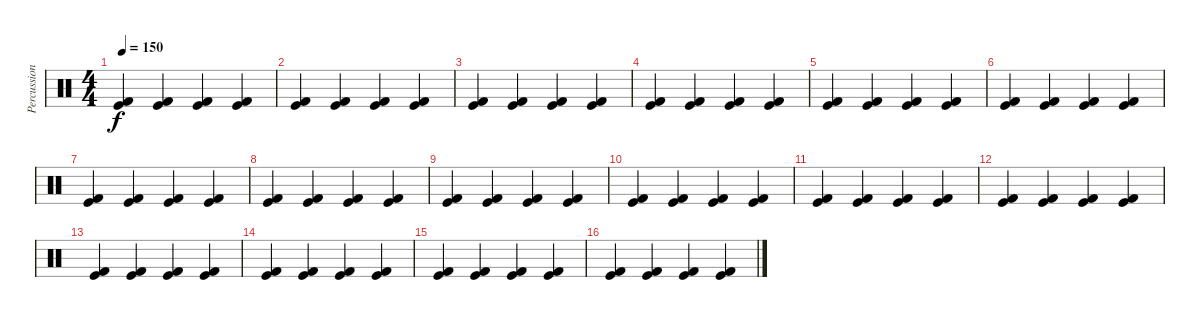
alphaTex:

\track ("Percussion" "Percussion") {instrument percussion}
\staff {score}
\articulation defaults
\ts (4 4)
\tempo 150
\clef neutral
\ks c
("Kick (hit) 2" "Kick (hit)").4{dy f} ("Kick (hit) 2" "Kick (hit)").4 ("Kick (hit) 2" "Kick (hit)").4 ("Kick (hit) 2" "Kick (hit)").4 |
("Kick (hit) 2" "Kick (hit)").4 ("Kick (hit) 2" "Kick (hit)").4 ("Kick (hit) 2" "Kick (hit)").4 ("Kick (hit) 2" "Kick (hit)").4 |
("Kick (hit) 2" "Kick (hit)").4 ("Kick (hit) 2" "Kick (hit)").4 ("Kick (hit) 2" "Kick (hit)").4 ("Kick (hit) 2" "Kick (hit)").4 |
("Kick (hit) 2" "Kick (hit)").4 ("Kick (hit) 2" "Kick (hit)").4 ("Kick (hit) 2" "Kick (hit)").4 ("Kick (hit) 2" "Kick (hit)").4 |
("Kick (hit) 2" "Kick (hit)").4 ("Kick (hit) 2" "Kick (hit)").4 ("Kick (hit) 2" "Kick (hit)").4 ("Kick (hit) 2" "Kick (hit)").4 |
("Kick (hit) 2" "Kick (hit)").4 ("Kick (hit) 2" "Kick (hit)").4 ("Kick (hit) 2" "Kick (hit)").4 ("Kick (hit) 2" "Kick (hit)").4 |
("Kick (hit) 2" "Kick (hit)").4 ("Kick (hit) 2" "Kick (hit)").4 ("Kick (hit) 2" "Kick (hit)").4 ("Kick (hit) 2" "Kick (hit)").4 |
("Kick (hit) 2" "Kick (hit)").4 ("Kick (hit) 2" "Kick (hit)").4 ("Kick (hit) 2" "Kick (hit)").4 ("Kick (hit) 2" "Kick (hit)").4 |
("Kick (hit) 2" "Kick (hit)").4 ("Kick (hit) 2" "Kick (hit)").4 ("Kick (hit) 2" "Kick (hit)").4 ("Kick (hit) 2" "Kick (hit)").4 |
("Kick (hit) 2" "Kick (hit)").4 ("Kick (hit) 2" "Kick (hit)").4 ("Kick (hit) 2" "Kick (hit)").4 ("Kick (hit) 2" "Kick (hit)").4 |
("Kick (hit) 2" "Kick (hit)").4 ("Kick (hit) 2" "Kick (hit)").4 ("Kick (hit) 2" "Kick (hit)").4 ("Kick (hit) 2" "Kick (hit)").4 |
("Kick (hit) 2" "Kick (hit)").4 ("Kick (hit) 2" "Kick (hit)").4 ("Kick (hit) 2" "Kick (hit)").4 ("Kick (hit) 2" "Kick (hit)").4 |
("Kick (hit) 2" "Kick (hit)").4 ("Kick (hit) 2" "Kick (hit)").4 ("Kick (hit) 2" "Kick (hit)").4 ("Kick (hit) 2" "Kick (hit)").4 |
("Kick (hit) 2" "Kick (hit)").4 ("Kick (hit) 2" "Kick (hit)").4 ("Kick (hit) 2" "Kick (hit)").4 ("Kick (hit) 2" "Kick (hit)").4 |
("Kick (hit) 2" "Kick (hit)").4 ("Kick (hit) 2" "Kick (hit)").4 ("Kick (hit) 2" "Kick (hit)").4 ("Kick (hit) 2" "Kick (hit)").4 |
("Kick (hit) 2" "Kick (hit)").4 ("Kick (hit) 2" "Kick (hit)").4 ("Kick (hit) 2" "Kick (hit)").4 ("Kick (hit) 2" "Kick (hit)").4
